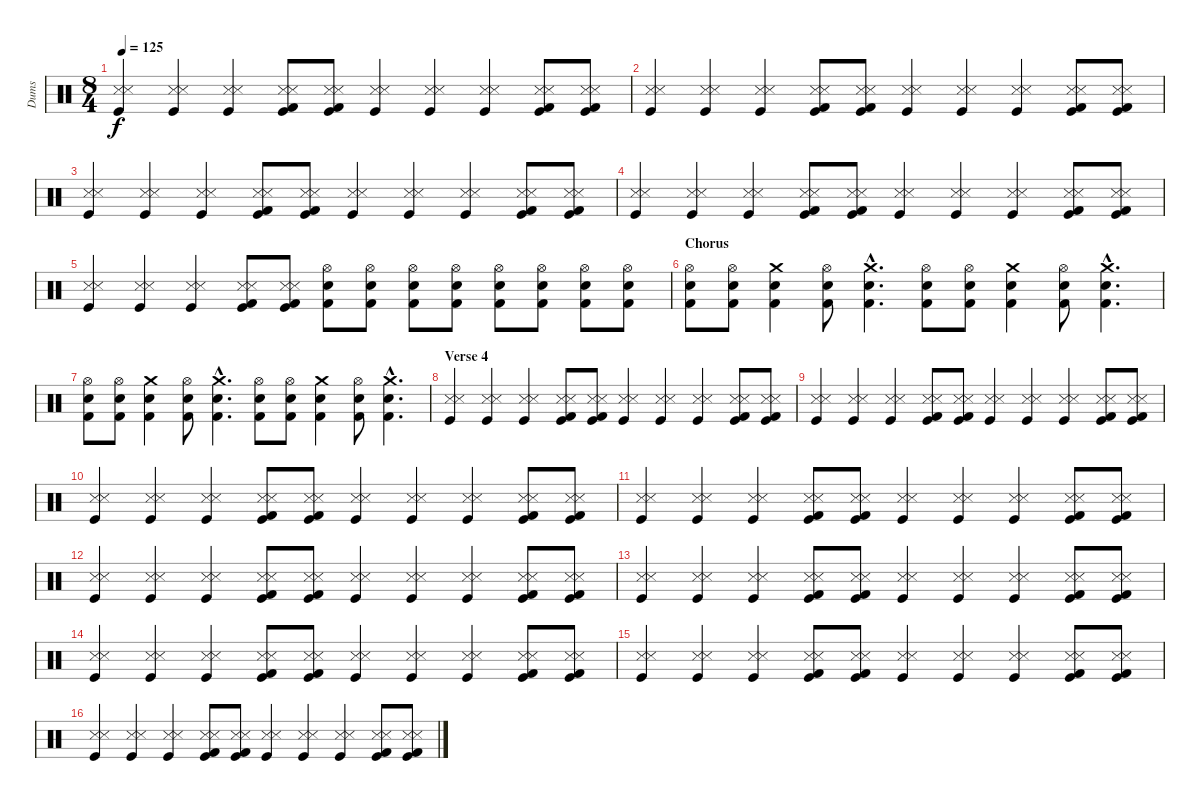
\track ("Dums" "Dums") {instrument percussion}
\staff {score}
\articulation defaults
\ts (8 4)
\tempo 125
\clef neutral
\ks c
("Snare (side stick) 3" "Metronome (hit)" "Kick (hit)").4{dy f} ("Snare (side stick) 3" "Metronome (hit)" "Kick (hit)").4 ("Snare (side stick) 3" "Metronome (hit)" "Kick (hit)").4 ("Snare (side stick) 3" "Metronome (hit)" "Kick (hit)" "Kick (hit) 2").8 ("Snare (side stick) 3" "Metronome (hit)" "Kick (hit)" "Kick (hit) 2").8 ("Snare (side stick) 3" "Metronome (hit)" "Kick (hit)").4 ("Snare (side stick) 3" "Metronome (hit)" "Kick (hit)").4 ("Snare (side stick) 3" "Metronome (hit)" "Kick (hit)").4 ("Snare (side stick) 3" "Metronome (hit)" "Kick (hit)" "Kick (hit) 2").8 ("Snare (side stick) 3" "Metronome (hit)" "Kick (hit)" "Kick (hit) 2").8 |
("Snare (side stick) 3" "Metronome (hit)" "Kick (hit)").4 ("Snare (side stick) 3" "Metronome (hit)" "Kick (hit)").4 ("Snare (side stick) 3" "Metronome (hit)" "Kick (hit)").4 ("Snare (side stick) 3" "Metronome (hit)" "Kick (hit)" "Kick (hit) 2").8 ("Snare (side stick) 3" "Metronome (hit)" "Kick (hit)" "Kick (hit) 2").8 ("Snare (side stick) 3" "Metronome (hit)" "Kick (hit)").4 ("Snare (side stick) 3" "Metronome (hit)" "Kick (hit)").4 ("Snare (side stick) 3" "Metronome (hit)" "Kick (hit)").4 ("Snare (side stick) 3" "Metronome (hit)" "Kick (hit)" "Kick (hit) 2").8 ("Snare (side stick) 3" "Metronome (hit)" "Kick (hit)" "Kick (hit) 2").8 |
("Snare (side stick) 3" "Metronome (hit)" "Kick (hit)").4 ("Snare (side stick) 3" "Metronome (hit)" "Kick (hit)").4 ("Snare (side stick) 3" "Metronome (hit)" "Kick (hit)").4 ("Snare (side stick) 3" "Metronome (hit)" "Kick (hit)" "Kick (hit) 2").8 ("Snare (side stick) 3" "Metronome (hit)" "Kick (hit)" "Kick (hit) 2").8 ("Snare (side stick) 3" "Metronome (hit)" "Kick (hit)").4 ("Snare (side stick) 3" "Metronome (hit)" "Kick (hit)").4 ("Snare (side stick) 3" "Metronome (hit)" "Kick (hit)").4 ("Snare (side stick) 3" "Metronome (hit)" "Kick (hit)" "Kick (hit) 2").8 ("Snare (side stick) 3" "Metronome (hit)" "Kick (hit)" "Kick (hit) 2").8 |
("Snare (side stick) 3" "Metronome (hit)" "Kick (hit)").4 ("Snare (side stick) 3" "Metronome (hit)" "Kick (hit)").4 ("Snare (side stick) 3" "Metronome (hit)" "Kick (hit)").4 ("Snare (side stick) 3" "Metronome (hit)" "Kick (hit)" "Kick (hit) 2").8 ("Snare (side stick) 3" "Metronome (hit)" "Kick (hit)" "Kick (hit) 2").8 ("Snare (side stick) 3" "Metronome (hit)" "Kick (hit)").4 ("Snare (side stick) 3" "Metronome (hit)" "Kick (hit)").4 ("Snare (side stick) 3" "Metronome (hit)" "Kick (hit)").4 ("Snare (side stick) 3" "Metronome (hit)" "Kick (hit)" "Kick (hit) 2").8 ("Snare (side stick) 3" "Metronome (hit)" "Kick (hit)" "Kick (hit) 2").8 |
("Snare (side stick) 3" "Metronome (hit)" "Kick (hit)").4 ("Snare (side stick) 3" "Metronome (hit)" "Kick (hit)").4 ("Snare (side stick) 3" "Metronome (hit)" "Kick (hit)").4 ("Snare (side stick) 3" "Metronome (hit)" "Kick (hit)" "Kick (hit) 2").8 ("Snare (side stick) 3" "Metronome (hit)" "Kick (hit)" "Kick (hit) 2").8 ("Kick (hit) 2" "Electric Snare (hit)" "Hi-Hat (open)").8 ("Kick (hit) 2" "Electric Snare (hit)" "Hi-Hat (open)").8 ("Kick (hit) 2" "Electric Snare (hit)" "Hi-Hat (open)").8 ("Kick (hit) 2" "Electric Snare (hit)" "Hi-Hat (open)").8 ("Kick (hit) 2" "Electric Snare (hit)" "Hi-Hat (open)").8 ("Kick (hit) 2" "Electric Snare (hit)" "Hi-Hat (open)").8 ("Kick (hit) 2" "Electric Snare (hit)" "Hi-Hat (open)").8 ("Kick (hit) 2" "Electric Snare (hit)" "Hi-Hat (open)").8 |
\section ("" "Chorus")
("Kick (hit) 2" "Electric Snare (hit)" "Hi-Hat (open)").8 ("Kick (hit) 2" "Electric Snare (hit)" "Hi-Hat (open)").8 ("Kick (hit) 2" "Electric Snare (hit)" "Crash medium (hit)").4 ("Kick (hit) 2" "Electric Snare (hit)" "Hi-Hat (open)").8 ("Kick (hit) 2"{hac} "Electric Snare (hit)"{hac} "Crash medium (hit)"{hac}).4{d} ("Kick (hit) 2" "Electric Snare (hit)" "Hi-Hat (open)").8 ("Kick (hit) 2" "Electric Snare (hit)" "Hi-Hat (open)").8 ("Kick (hit) 2" "Electric Snare (hit)" "Crash medium (hit)").4 ("Kick (hit) 2" "Electric Snare (hit)" "Hi-Hat (open)").8 ("Kick (hit) 2"{hac} "Electric Snare (hit)"{hac} "Crash medium (hit)"{hac}).4{d} |
("Kick (hit) 2" "Electric Snare (hit)" "Hi-Hat (open)").8 ("Kick (hit) 2" "Electric Snare (hit)" "Hi-Hat (open)").8 ("Kick (hit) 2" "Electric Snare (hit)" "Crash medium (hit)").4 ("Kick (hit) 2" "Electric Snare (hit)" "Hi-Hat (open)").8 ("Kick (hit) 2"{hac} "Electric Snare (hit)"{hac} "Crash medium (hit)"{hac}).4{d} ("Kick (hit) 2" "Electric Snare (hit)" "Hi-Hat (open)").8 ("Kick (hit) 2" "Electric Snare (hit)" "Hi-Hat (open)").8 ("Kick (hit) 2" "Electric Snare (hit)" "Crash medium (hit)").4 ("Kick (hit) 2" "Electric Snare (hit)" "Hi-Hat (open)").8 ("Kick (hit) 2"{hac} "Electric Snare (hit)"{hac} "Crash medium (hit)"{hac}).4{d} |
\section ("" "Verse 4")
("Snare (side stick) 3" "Metronome (hit)" "Kick (hit)").4 ("Snare (side stick) 3" "Metronome (hit)" "Kick (hit)").4 ("Snare (side stick) 3" "Metronome (hit)" "Kick (hit)").4 ("Snare (side stick) 3" "Metronome (hit)" "Kick (hit)" "Kick (hit) 2").8 ("Snare (side stick) 3" "Metronome (hit)" "Kick (hit)" "Kick (hit) 2").8 ("Snare (side stick) 3" "Metronome (hit)" "Kick (hit)").4 ("Snare (side stick) 3" "Metronome (hit)" "Kick (hit)").4 ("Snare (side stick) 3" "Metronome (hit)" "Kick (hit)").4 ("Snare (side stick) 3" "Metronome (hit)" "Kick (hit)" "Kick (hit) 2").8 ("Snare (side stick) 3" "Metronome (hit)" "Kick (hit)" "Kick (hit) 2").8 |
("Snare (side stick) 3" "Metronome (hit)" "Kick (hit)").4 ("Snare (side stick) 3" "Metronome (hit)" "Kick (hit)").4 ("Snare (side stick) 3" "Metronome (hit)" "Kick (hit)").4 ("Snare (side stick) 3" "Metronome (hit)" "Kick (hit)" "Kick (hit) 2").8 ("Snare (side stick) 3" "Metronome (hit)" "Kick (hit)" "Kick (hit) 2").8 ("Snare (side stick) 3" "Metronome (hit)" "Kick (hit)").4 ("Snare (side stick) 3" "Metronome (hit)" "Kick (hit)").4 ("Snare (side stick) 3" "Metronome (hit)" "Kick (hit)").4 ("Snare (side stick) 3" "Metronome (hit)" "Kick (hit)" "Kick (hit) 2").8 ("Snare (side stick) 3" "Metronome (hit)" "Kick (hit)" "Kick (hit) 2").8 |
("Snare (side stick) 3" "Metronome (hit)" "Kick (hit)").4 ("Snare (side stick) 3" "Metronome (hit)" "Kick (hit)").4 ("Snare (side stick) 3" "Metronome (hit)" "Kick (hit)").4 ("Snare (side stick) 3" "Metronome (hit)" "Kick (hit)" "Kick (hit) 2").8 ("Snare (side stick) 3" "Metronome (hit)" "Kick (hit)" "Kick (hit) 2").8 ("Snare (side stick) 3" "Metronome (hit)" "Kick (hit)").4 ("Snare (side stick) 3" "Metronome (hit)" "Kick (hit)").4 ("Snare (side stick) 3" "Metronome (hit)" "Kick (hit)").4 ("Snare (side stick) 3" "Metronome (hit)" "Kick (hit)" "Kick (hit) 2").8 ("Snare (side stick) 3" "Metronome (hit)" "Kick (hit)" "Kick (hit) 2").8 |
("Snare (side stick) 3" "Metronome (hit)" "Kick (hit)").4 ("Snare (side stick) 3" "Metronome (hit)" "Kick (hit)").4 ("Snare (side stick) 3" "Metronome (hit)" "Kick (hit)").4 ("Snare (side stick) 3" "Metronome (hit)" "Kick (hit)" "Kick (hit) 2").8 ("Snare (side stick) 3" "Metronome (hit)" "Kick (hit)" "Kick (hit) 2").8 ("Snare (side stick) 3" "Metronome (hit)" "Kick (hit)").4 ("Snare (side stick) 3" "Metronome (hit)" "Kick (hit)").4 ("Snare (side stick) 3" "Metronome (hit)" "Kick (hit)").4 ("Snare (side stick) 3" "Metronome (hit)" "Kick (hit)" "Kick (hit) 2").8 ("Snare (side stick) 3" "Metronome (hit)" "Kick (hit)" "Kick (hit) 2").8 |
("Snare (side stick) 3" "Metronome (hit)" "Kick (hit)").4 ("Snare (side stick) 3" "Metronome (hit)" "Kick (hit)").4 ("Snare (side stick) 3" "Metronome (hit)" "Kick (hit)").4 ("Snare (side stick) 3" "Metronome (hit)" "Kick (hit)" "Kick (hit) 2").8 ("Snare (side stick) 3" "Metronome (hit)" "Kick (hit)" "Kick (hit) 2").8 ("Snare (side stick) 3" "Metronome (hit)" "Kick (hit)").4 ("Snare (side stick) 3" "Metronome (hit)" "Kick (hit)").4 ("Snare (side stick) 3" "Metronome (hit)" "Kick (hit)").4 ("Snare (side stick) 3" "Metronome (hit)" "Kick (hit)" "Kick (hit) 2").8 ("Snare (side stick) 3" "Metronome (hit)" "Kick (hit)" "Kick (hit) 2").8 |
("Snare (side stick) 3" "Metronome (hit)" "Kick (hit)").4 ("Snare (side stick) 3" "Metronome (hit)" "Kick (hit)").4 ("Snare (side stick) 3" "Metronome (hit)" "Kick (hit)").4 ("Snare (side stick) 3" "Metronome (hit)" "Kick (hit)" "Kick (hit) 2").8 ("Snare (side stick) 3" "Metronome (hit)" "Kick (hit)" "Kick (hit) 2").8 ("Snare (side stick) 3" "Metronome (hit)" "Kick (hit)").4 ("Snare (side stick) 3" "Metronome (hit)" "Kick (hit)").4 ("Snare (side stick) 3" "Metronome (hit)" "Kick (hit)").4 ("Snare (side stick) 3" "Metronome (hit)" "Kick (hit)" "Kick (hit) 2").8 ("Snare (side stick) 3" "Metronome (hit)" "Kick (hit)" "Kick (hit) 2").8 |
("Snare (side stick) 3" "Metronome (hit)" "Kick (hit)").4 ("Snare (side stick) 3" "Metronome (hit)" "Kick (hit)").4 ("Snare (side stick) 3" "Metronome (hit)" "Kick (hit)").4 ("Snare (side stick) 3" "Metronome (hit)" "Kick (hit)" "Kick (hit) 2").8 ("Snare (side stick) 3" "Metronome (hit)" "Kick (hit)" "Kick (hit) 2").8 ("Snare (side stick) 3" "Metronome (hit)" "Kick (hit)").4 ("Snare (side stick) 3" "Metronome (hit)" "Kick (hit)").4 ("Snare (side stick) 3" "Metronome (hit)" "Kick (hit)").4 ("Snare (side stick) 3" "Metronome (hit)" "Kick (hit)" "Kick (hit) 2").8 ("Snare (side stick) 3" "Metronome (hit)" "Kick (hit)" "Kick (hit) 2").8 |
("Snare (side stick) 3" "Metronome (hit)" "Kick (hit)").4 ("Snare (side stick) 3" "Metronome (hit)" "Kick (hit)").4 ("Snare (side stick) 3" "Metronome (hit)" "Kick (hit)").4 ("Snare (side stick) 3" "Metronome (hit)" "Kick (hit)" "Kick (hit) 2").8 ("Snare (side stick) 3" "Metronome (hit)" "Kick (hit)" "Kick (hit) 2").8 ("Snare (side stick) 3" "Metronome (hit)" "Kick (hit)").4 ("Snare (side stick) 3" "Metronome (hit)" "Kick (hit)").4 ("Snare (side stick) 3" "Metronome (hit)" "Kick (hit)").4 ("Snare (side stick) 3" "Metronome (hit)" "Kick (hit)" "Kick (hit) 2").8 ("Snare (side stick) 3" "Metronome (hit)" "Kick (hit)" "Kick (hit) 2").8 |
("Snare (side stick) 3" "Metronome (hit)" "Kick (hit)").4 ("Snare (side stick) 3" "Metronome (hit)" "Kick (hit)").4 ("Snare (side stick) 3" "Metronome (hit)" "Kick (hit)").4 ("Snare (side stick) 3" "Metronome (hit)" "Kick (hit)" "Kick (hit) 2").8 ("Snare (side stick) 3" "Metronome (hit)" "Kick (hit)" "Kick (hit) 2").8 ("Snare (side stick) 3" "Metronome (hit)" "Kick (hit)").4 ("Snare (side stick) 3" "Metronome (hit)" "Kick (hit)").4 ("Snare (side stick) 3" "Metronome (hit)" "Kick (hit)").4 ("Snare (side stick) 3" "Metronome (hit)" "Kick (hit)" "Kick (hit) 2").8 ("Snare (side stick) 3" "Metronome (hit)" "Kick (hit)" "Kick (hit) 2").8
